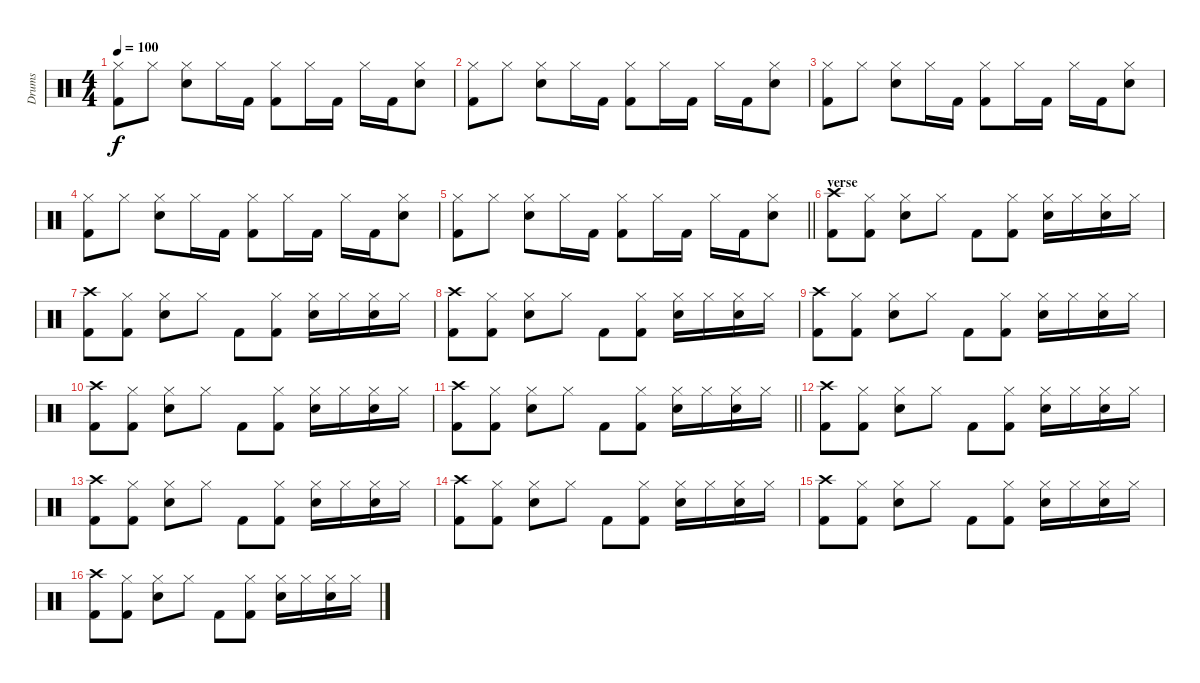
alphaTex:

\track ("Drums" "Drums") {instrument percussion}
\staff {score}
\articulation defaults
\ts (4 4)
\tempo 100
\clef neutral
\ks c
("Hi-Hat (closed)" "Kick (hit) 2").8{dy f} "Hi-Hat (closed)".8 ("Hi-Hat (closed)" "Snare (hit) 2").8 "Hi-Hat (closed)".16 "Kick (hit) 2".16 ("Hi-Hat (closed)" "Kick (hit) 2").8 "Hi-Hat (closed)".16 "Kick (hit) 2".16 "Hi-Hat (closed)".16 "Kick (hit) 2".16 ("Hi-Hat (closed)" "Snare (hit) 2").8 |
("Hi-Hat (closed)" "Kick (hit) 2").8 "Hi-Hat (closed)".8 ("Hi-Hat (closed)" "Snare (hit) 2").8 "Hi-Hat (closed)".16 "Kick (hit) 2".16 ("Hi-Hat (closed)" "Kick (hit) 2").8 "Hi-Hat (closed)".16 "Kick (hit) 2".16 "Hi-Hat (closed)".16 "Kick (hit) 2".16 ("Hi-Hat (closed)" "Snare (hit) 2").8 |
("Hi-Hat (closed)" "Kick (hit) 2").8 "Hi-Hat (closed)".8 ("Hi-Hat (closed)" "Snare (hit) 2").8 "Hi-Hat (closed)".16 "Kick (hit) 2".16 ("Hi-Hat (closed)" "Kick (hit) 2").8 "Hi-Hat (closed)".16 "Kick (hit) 2".16 "Hi-Hat (closed)".16 "Kick (hit) 2".16 ("Hi-Hat (closed)" "Snare (hit) 2").8 |
("Hi-Hat (closed)" "Kick (hit) 2").8 "Hi-Hat (closed)".8 ("Hi-Hat (closed)" "Snare (hit) 2").8 "Hi-Hat (closed)".16 "Kick (hit) 2".16 ("Hi-Hat (closed)" "Kick (hit) 2").8 "Hi-Hat (closed)".16 "Kick (hit) 2".16 "Hi-Hat (closed)".16 "Kick (hit) 2".16 ("Hi-Hat (closed)" "Snare (hit) 2").8 |
\barLineRight lightlight
("Hi-Hat (closed)" "Kick (hit) 2").8 "Hi-Hat (closed)".8 ("Hi-Hat (closed)" "Snare (hit) 2").8 "Hi-Hat (closed)".16 "Kick (hit) 2".16 ("Hi-Hat (closed)" "Kick (hit) 2").8 "Hi-Hat (closed)".16 "Kick (hit) 2".16 "Hi-Hat (closed)".16 "Kick (hit) 2".16 ("Hi-Hat (closed)" "Snare (hit) 2").8 |
\section ("" "verse")
("Crash high (hit)" "Kick (hit) 2").8 ("Hi-Hat (closed)" "Kick (hit) 2").8 ("Hi-Hat (closed)" "Snare (hit) 2").8 "Hi-Hat (closed)".8 "Kick (hit) 2".8 ("Hi-Hat (closed)" "Kick (hit) 2").8 ("Hi-Hat (closed)" "Snare (hit) 2").16 "Hi-Hat (closed)".16 ("Hi-Hat (closed)" "Snare (hit) 2").16 "Hi-Hat (closed)".16 |
("Crash high (hit)" "Kick (hit) 2").8 ("Hi-Hat (closed)" "Kick (hit) 2").8 ("Hi-Hat (closed)" "Snare (hit) 2").8 "Hi-Hat (closed)".8 "Kick (hit) 2".8 ("Hi-Hat (closed)" "Kick (hit) 2").8 ("Hi-Hat (closed)" "Snare (hit) 2").16 "Hi-Hat (closed)".16 ("Hi-Hat (closed)" "Snare (hit) 2").16 "Hi-Hat (closed)".16 |
("Crash high (hit)" "Kick (hit) 2").8 ("Hi-Hat (closed)" "Kick (hit) 2").8 ("Hi-Hat (closed)" "Snare (hit) 2").8 "Hi-Hat (closed)".8 "Kick (hit) 2".8 ("Hi-Hat (closed)" "Kick (hit) 2").8 ("Hi-Hat (closed)" "Snare (hit) 2").16 "Hi-Hat (closed)".16 ("Hi-Hat (closed)" "Snare (hit) 2").16 "Hi-Hat (closed)".16 |
("Crash high (hit)" "Kick (hit) 2").8 ("Hi-Hat (closed)" "Kick (hit) 2").8 ("Hi-Hat (closed)" "Snare (hit) 2").8 "Hi-Hat (closed)".8 "Kick (hit) 2".8 ("Hi-Hat (closed)" "Kick (hit) 2").8 ("Hi-Hat (closed)" "Snare (hit) 2").16 "Hi-Hat (closed)".16 ("Hi-Hat (closed)" "Snare (hit) 2").16 "Hi-Hat (closed)".16 |
("Crash high (hit)" "Kick (hit) 2").8 ("Hi-Hat (closed)" "Kick (hit) 2").8 ("Hi-Hat (closed)" "Snare (hit) 2").8 "Hi-Hat (closed)".8 "Kick (hit) 2".8 ("Hi-Hat (closed)" "Kick (hit) 2").8 ("Hi-Hat (closed)" "Snare (hit) 2").16 "Hi-Hat (closed)".16 ("Hi-Hat (closed)" "Snare (hit) 2").16 "Hi-Hat (closed)".16 |
\barLineRight lightlight
("Crash high (hit)" "Kick (hit) 2").8 ("Hi-Hat (closed)" "Kick (hit) 2").8 ("Hi-Hat (closed)" "Snare (hit) 2").8 "Hi-Hat (closed)".8 "Kick (hit) 2".8 ("Hi-Hat (closed)" "Kick (hit) 2").8 ("Hi-Hat (closed)" "Snare (hit) 2").16 "Hi-Hat (closed)".16 ("Hi-Hat (closed)" "Snare (hit) 2").16 "Hi-Hat (closed)".16 |
("Crash high (hit)" "Kick (hit) 2").8 ("Hi-Hat (closed)" "Kick (hit) 2").8 ("Hi-Hat (closed)" "Snare (hit) 2").8 "Hi-Hat (closed)".8 "Kick (hit) 2".8 ("Hi-Hat (closed)" "Kick (hit) 2").8 ("Hi-Hat (closed)" "Snare (hit) 2").16 "Hi-Hat (closed)".16 ("Hi-Hat (closed)" "Snare (hit) 2").16 "Hi-Hat (closed)".16 |
("Crash high (hit)" "Kick (hit) 2").8 ("Hi-Hat (closed)" "Kick (hit) 2").8 ("Hi-Hat (closed)" "Snare (hit) 2").8 "Hi-Hat (closed)".8 "Kick (hit) 2".8 ("Hi-Hat (closed)" "Kick (hit) 2").8 ("Hi-Hat (closed)" "Snare (hit) 2").16 "Hi-Hat (closed)".16 ("Hi-Hat (closed)" "Snare (hit) 2").16 "Hi-Hat (closed)".16 |
("Crash high (hit)" "Kick (hit) 2").8 ("Hi-Hat (closed)" "Kick (hit) 2").8 ("Hi-Hat (closed)" "Snare (hit) 2").8 "Hi-Hat (closed)".8 "Kick (hit) 2".8 ("Hi-Hat (closed)" "Kick (hit) 2").8 ("Hi-Hat (closed)" "Snare (hit) 2").16 "Hi-Hat (closed)".16 ("Hi-Hat (closed)" "Snare (hit) 2").16 "Hi-Hat (closed)".16 |
("Crash high (hit)" "Kick (hit) 2").8 ("Hi-Hat (closed)" "Kick (hit) 2").8 ("Hi-Hat (closed)" "Snare (hit) 2").8 "Hi-Hat (closed)".8 "Kick (hit) 2".8 ("Hi-Hat (closed)" "Kick (hit) 2").8 ("Hi-Hat (closed)" "Snare (hit) 2").16 "Hi-Hat (closed)".16 ("Hi-Hat (closed)" "Snare (hit) 2").16 "Hi-Hat (closed)".16 |
("Crash high (hit)" "Kick (hit) 2").8 ("Hi-Hat (closed)" "Kick (hit) 2").8 ("Hi-Hat (closed)" "Snare (hit) 2").8 "Hi-Hat (closed)".8 "Kick (hit) 2".8 ("Hi-Hat (closed)" "Kick (hit) 2").8 ("Hi-Hat (closed)" "Snare (hit) 2").16 "Hi-Hat (closed)".16 ("Hi-Hat (closed)" "Snare (hit) 2").16 "Hi-Hat (closed)".16
